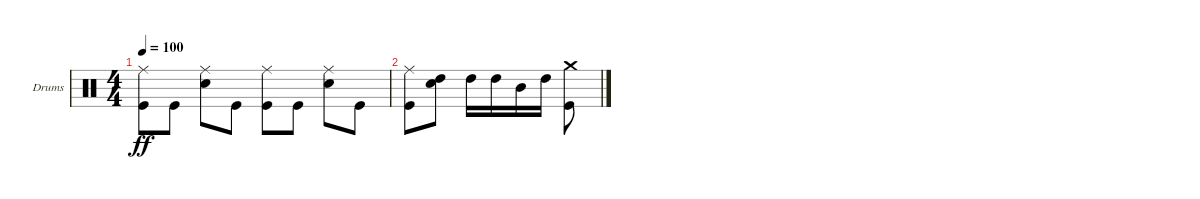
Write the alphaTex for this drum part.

\defaultSystemsLayout 4
\bracketExtendMode groupsimilarinstruments
\firstSystemTrackNameOrientation horizontal
\otherSystemsTrackNameOrientation horizontal
\track ("Барабаны" "Drums") {instrument percussion}
\staff {score}
\articulation defaults
\ts (4 4)
\tempo 100
\clef neutral
\ks c
("Kick (hit)" "Ride (middle)").8{dy ff} "Kick (hit)".8 ("Snare (hit) 2" "Ride (middle)").8 "Kick (hit)".8 ("Kick (hit)" "Ride (middle)").8 "Kick (hit)".8 ("Snare (hit) 2" "Ride (middle)").8 "Kick (hit)".8 |
("Kick (hit)" "Ride (middle)").8 ("High Tom (hit)" "Snare (hit) 2").8 "High Tom (hit)".16 "High Tom (hit)".16 "Mid Tom (hit)".16 "High Tom (hit)".16 ("Crash medium (hit)" "Kick (hit)").8
